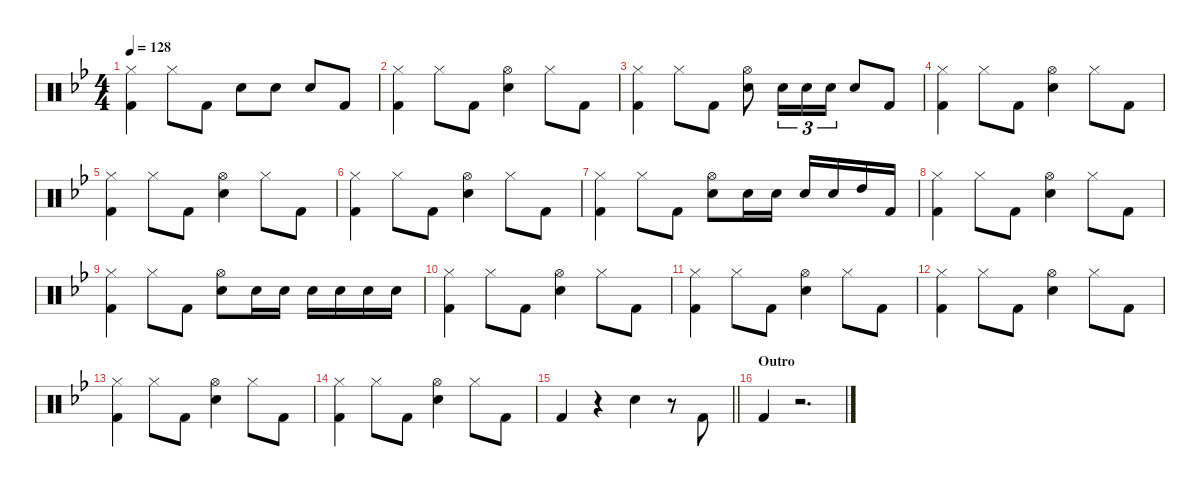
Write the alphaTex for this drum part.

\defaultSystemsLayout 4
\hideDynamics
\bracketExtendMode nobrackets
\singleTrackTrackNamePolicy hidden
\multiTrackTrackNamePolicy hidden
\firstSystemTrackNameMode fullname
\firstSystemTrackNameOrientation horizontal
\otherSystemsTrackNameOrientation horizontal
\track ("Drums" "drm.") {instrument percussion}
\staff {score}
\articulation defaults
\ts (4 4)
\tempo 128
\clef neutral
\ks bb
("Hi-Hat (closed)"{acc forcenatural} "Kick (hit) 2"{acc forcenatural}).4{dy f beam Down} "Hi-Hat (closed)"{acc forcenatural}.8{beam Down} "Kick (hit) 2"{acc forcenatural}.8{beam Down} "Snare (hit) 2"{acc forcenatural}.8{beam Down} "Snare (hit) 2"{acc forcenatural}.8{beam Down} "Snare (hit) 2"{acc forcenatural}.8{beam Up} "Kick (hit) 2"{acc forcenatural}.8{beam Up} |
("Hi-Hat (closed)"{acc forcenatural} "Kick (hit) 2"{acc forcenatural}).4{beam Down} "Hi-Hat (closed)"{acc forcenatural}.8{beam Down} "Kick (hit) 2"{acc forcenatural}.8{beam Down} ("Hi-Hat (open)"{acc forcenatural} "Snare (hit) 2"{acc forcenatural}).4{beam Down} "Hi-Hat (closed)"{acc forcenatural}.8{beam Down} "Kick (hit) 2"{acc forcenatural}.8{beam Down} |
("Hi-Hat (closed)"{acc forcenatural} "Kick (hit) 2"{acc forcenatural}).4{beam Down} "Hi-Hat (closed)"{acc forcenatural}.8{beam Down} "Kick (hit) 2"{acc forcenatural}.8{beam Down} ("Hi-Hat (open)"{acc forcenatural} "Snare (hit) 2"{acc forcenatural}).8{beam Down} "Snare (hit) 2"{acc forcenatural}.16{tu (3 2) beam Down} "Snare (hit) 2"{acc forcenatural}.16{tu (3 2) beam Down} "Snare (hit) 2"{acc forcenatural}.16{tu (3 2) beam Down} "Snare (hit) 2"{acc forcenatural}.8{beam Up} "Kick (hit) 2"{acc forcenatural}.8{beam Up} |
("Hi-Hat (closed)"{acc forcenatural} "Kick (hit) 2"{acc forcenatural}).4{beam Down} "Hi-Hat (closed)"{acc forcenatural}.8{beam Down} "Kick (hit) 2"{acc forcenatural}.8{beam Down} ("Hi-Hat (open)"{acc forcenatural} "Snare (hit) 2"{acc forcenatural}).4{beam Down} "Hi-Hat (closed)"{acc forcenatural}.8{beam Down} "Kick (hit) 2"{acc forcenatural}.8{beam Down} |
("Hi-Hat (closed)"{acc forcenatural} "Kick (hit) 2"{acc forcenatural}).4{beam Down} "Hi-Hat (closed)"{acc forcenatural}.8{beam Down} "Kick (hit) 2"{acc forcenatural}.8{beam Down} ("Hi-Hat (open)"{acc forcenatural} "Snare (hit) 2"{acc forcenatural}).4{beam Down} "Hi-Hat (closed)"{acc forcenatural}.8{beam Down} "Kick (hit) 2"{acc forcenatural}.8{beam Down} |
("Hi-Hat (closed)"{acc forcenatural} "Kick (hit) 2"{acc forcenatural}).4{beam Down} "Hi-Hat (closed)"{acc forcenatural}.8{beam Down} "Kick (hit) 2"{acc forcenatural}.8{beam Down} ("Hi-Hat (open)"{acc forcenatural} "Snare (hit) 2"{acc forcenatural}).4{beam Down} "Hi-Hat (closed)"{acc forcenatural}.8{beam Down} "Kick (hit) 2"{acc forcenatural}.8{beam Down} |
("Hi-Hat (closed)"{acc forcenatural} "Kick (hit) 2"{acc forcenatural}).4{beam Down} "Hi-Hat (closed)"{acc forcenatural}.8{beam Down} "Kick (hit) 2"{acc forcenatural}.8{beam Down} ("Hi-Hat (open)"{acc forcenatural} "Snare (hit) 2"{acc forcenatural}).8{beam Down} "Snare (hit) 2"{acc forcenatural}.16{beam Down} "Snare (hit) 2"{acc forcenatural}.16{beam Down} "Snare (hit) 2"{acc forcenatural}.16{beam Up} "Snare (hit) 2"{acc forcenatural}.16{beam Up} "High Tom (hit)"{acc forcenatural}.16{beam Up} "Kick (hit) 2"{acc forcenatural}.16{beam Up} |
("Hi-Hat (closed)"{acc forcenatural} "Kick (hit) 2"{acc forcenatural}).4{beam Down} "Hi-Hat (closed)"{acc forcenatural}.8{beam Down} "Kick (hit) 2"{acc forcenatural}.8{beam Down} ("Hi-Hat (open)"{acc forcenatural} "Snare (hit) 2"{acc forcenatural}).4{beam Down} "Hi-Hat (closed)"{acc forcenatural}.8{beam Down} "Kick (hit) 2"{acc forcenatural}.8{beam Down} |
("Hi-Hat (closed)"{acc forcenatural} "Kick (hit) 2"{acc forcenatural}).4{beam Down} "Hi-Hat (closed)"{acc forcenatural}.8{beam Down} "Kick (hit) 2"{acc forcenatural}.8{beam Down} ("Hi-Hat (open)"{acc forcenatural} "Snare (hit) 2"{acc forcenatural}).8{beam Down} "Snare (hit) 2"{acc forcenatural}.16{beam Down} "Snare (hit) 2"{acc forcenatural}.16{beam Down} "Snare (hit) 2"{acc forcenatural}.16{beam Down} "Snare (hit) 2"{acc forcenatural}.16{beam Down} "Snare (hit) 2"{acc forcenatural}.16{beam Down} "Snare (hit) 2"{acc forcenatural}.16{beam Down} |
("Hi-Hat (closed)"{acc forcenatural} "Kick (hit) 2"{acc forcenatural}).4{beam Down} "Hi-Hat (closed)"{acc forcenatural}.8{beam Down} "Kick (hit) 2"{acc forcenatural}.8{beam Down} ("Hi-Hat (open)"{acc forcenatural} "Snare (hit) 2"{acc forcenatural}).4{beam Down} "Hi-Hat (closed)"{acc forcenatural}.8{beam Down} "Kick (hit) 2"{acc forcenatural}.8{beam Down} |
("Hi-Hat (closed)"{acc forcenatural} "Kick (hit) 2"{acc forcenatural}).4{beam Down} "Hi-Hat (closed)"{acc forcenatural}.8{beam Down} "Kick (hit) 2"{acc forcenatural}.8{beam Down} ("Hi-Hat (open)"{acc forcenatural} "Snare (hit) 2"{acc forcenatural}).4{beam Down} "Hi-Hat (closed)"{acc forcenatural}.8{beam Down} "Kick (hit) 2"{acc forcenatural}.8{beam Down} |
("Hi-Hat (closed)"{acc forcenatural} "Kick (hit) 2"{acc forcenatural}).4{beam Down} "Hi-Hat (closed)"{acc forcenatural}.8{beam Down} "Kick (hit) 2"{acc forcenatural}.8{beam Down} ("Hi-Hat (open)"{acc forcenatural} "Snare (hit) 2"{acc forcenatural}).4{beam Down} "Hi-Hat (closed)"{acc forcenatural}.8{beam Down} "Kick (hit) 2"{acc forcenatural}.8{beam Down} |
("Hi-Hat (closed)"{acc forcenatural} "Kick (hit) 2"{acc forcenatural}).4{beam Down} "Hi-Hat (closed)"{acc forcenatural}.8{beam Down} "Kick (hit) 2"{acc forcenatural}.8{beam Down} ("Hi-Hat (open)"{acc forcenatural} "Snare (hit) 2"{acc forcenatural}).4{beam Down} "Hi-Hat (closed)"{acc forcenatural}.8{beam Down} "Kick (hit) 2"{acc forcenatural}.8{beam Down} |
("Hi-Hat (closed)"{acc forcenatural} "Kick (hit) 2"{acc forcenatural}).4{beam Down} "Hi-Hat (closed)"{acc forcenatural}.8{beam Down} "Kick (hit) 2"{acc forcenatural}.8{beam Down} ("Hi-Hat (open)"{acc forcenatural} "Snare (hit) 2"{acc forcenatural}).4{beam Down} "Hi-Hat (closed)"{acc forcenatural}.8{beam Down} "Kick (hit) 2"{acc forcenatural}.8{beam Down} |
\barLineRight lightlight "Kick (hit) 2"{acc forcenatural}.4{beam Up}
r.4{beam Up} "Snare (hit) 2"{acc forcenatural}.4{beam Down} r.8{beam Down} "Kick (hit) 2"{acc forcenatural}.8{beam Up} |
\section ("" "Outro")
"Kick (hit) 2"{acc forcenatural}.4{beam Up} r.2{d beam Up}
